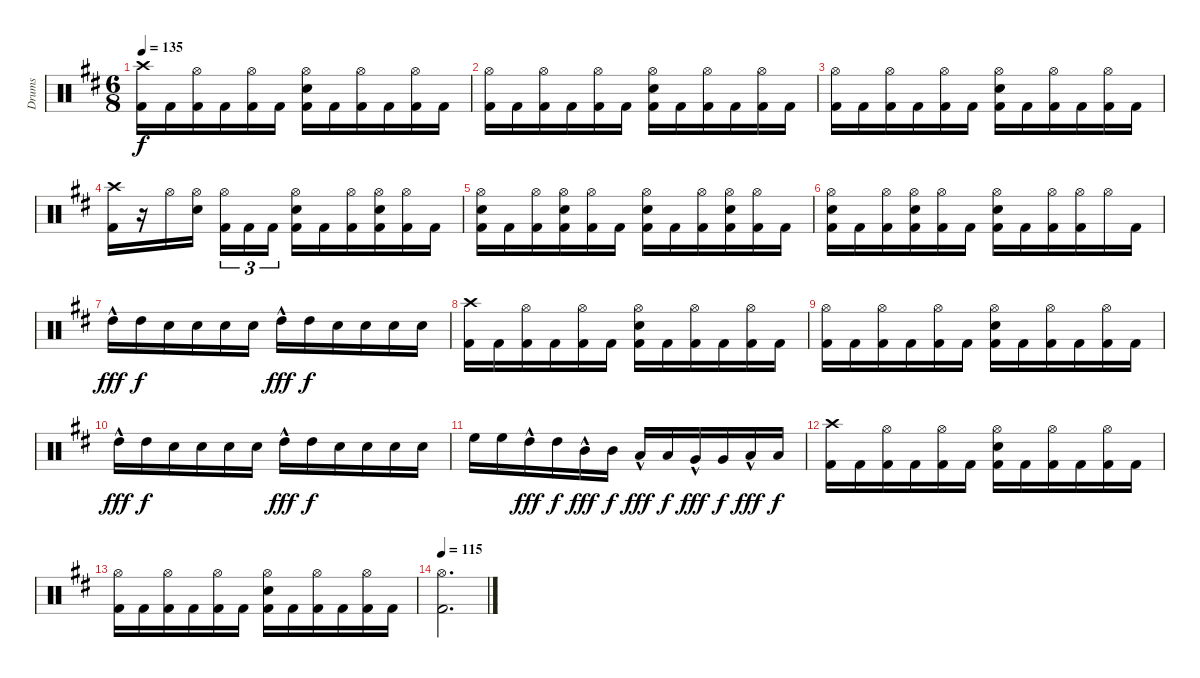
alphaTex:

\track ("Drums" "Drums") {instrument percussion}
\staff {score}
\articulation defaults
\ts (6 8)
\tempo 135
\clef neutral
\ks bminor
("Kick (hit) 2" "Crash high (hit)").16{dy f} "Kick (hit) 2".16 ("Kick (hit) 2" "Hi-Hat (open)").16 "Kick (hit) 2".16 ("Kick (hit) 2" "Hi-Hat (open)").16 "Kick (hit) 2".16 ("Kick (hit) 2" "Electric Snare (hit)" "Hi-Hat (open)").16 "Kick (hit) 2".16 ("Kick (hit) 2" "Hi-Hat (open)").16 "Kick (hit) 2".16 ("Kick (hit) 2" "Hi-Hat (open)").16 "Kick (hit) 2".16 |
("Kick (hit) 2" "Hi-Hat (open)").16 "Kick (hit) 2".16 ("Kick (hit) 2" "Hi-Hat (open)").16 "Kick (hit) 2".16 ("Kick (hit) 2" "Hi-Hat (open)").16 "Kick (hit) 2".16 ("Kick (hit) 2" "Electric Snare (hit)" "Hi-Hat (open)").16 "Kick (hit) 2".16 ("Kick (hit) 2" "Hi-Hat (open)").16 "Kick (hit) 2".16 ("Kick (hit) 2" "Hi-Hat (open)").16 "Kick (hit) 2".16 |
("Kick (hit) 2" "Hi-Hat (open)").16 "Kick (hit) 2".16 ("Kick (hit) 2" "Hi-Hat (open)").16 "Kick (hit) 2".16 ("Kick (hit) 2" "Hi-Hat (open)").16 "Kick (hit) 2".16 ("Kick (hit) 2" "Electric Snare (hit)" "Hi-Hat (open)").16 "Kick (hit) 2".16 ("Kick (hit) 2" "Hi-Hat (open)").16 "Kick (hit) 2".16 ("Kick (hit) 2" "Hi-Hat (open)").16 "Kick (hit) 2".16 |
("Kick (hit) 2" "Crash high (hit)").16 r.16 "Hi-Hat (open)".16 ("Electric Snare (hit)" "Hi-Hat (open)").16{beam splitsecondary} ("Kick (hit) 2" "Hi-Hat (open)").16{tu (3 2)} "Kick (hit) 2".16{tu (3 2)} "Kick (hit) 2".16{tu (3 2)} ("Kick (hit) 2" "Electric Snare (hit)" "Hi-Hat (open)").16 "Kick (hit) 2".16 ("Kick (hit) 2" "Hi-Hat (open)").16 ("Kick (hit) 2" "Electric Snare (hit)" "Hi-Hat (open)").16 ("Kick (hit) 2" "Hi-Hat (open)").16 "Kick (hit) 2".16 |
("Kick (hit) 2" "Electric Snare (hit)" "Hi-Hat (open)").16 "Kick (hit) 2".16 ("Kick (hit) 2" "Hi-Hat (open)").16 ("Kick (hit) 2" "Electric Snare (hit)" "Hi-Hat (open)").16 ("Kick (hit) 2" "Hi-Hat (open)").16 "Kick (hit) 2".16 ("Kick (hit) 2" "Electric Snare (hit)" "Hi-Hat (open)").16 "Kick (hit) 2".16 ("Kick (hit) 2" "Hi-Hat (open)").16 ("Kick (hit) 2" "Electric Snare (hit)" "Hi-Hat (open)").16 ("Kick (hit) 2" "Hi-Hat (open)").16 "Kick (hit) 2".16 |
("Kick (hit) 2" "Electric Snare (hit)" "Hi-Hat (open)").16 "Kick (hit) 2".16 ("Kick (hit) 2" "Hi-Hat (open)").16 ("Kick (hit) 2" "Electric Snare (hit)" "Hi-Hat (open)").16 ("Kick (hit) 2" "Hi-Hat (open)").16 "Kick (hit) 2".16 ("Kick (hit) 2" "Electric Snare (hit)" "Hi-Hat (open)").16 "Kick (hit) 2".16 ("Kick (hit) 2" "Hi-Hat (open)").16 ("Kick (hit) 2" "Hi-Hat (open)").16 "Hi-Hat (open)".16 "Kick (hit) 2".16 |
"High Tom (hit)"{hac}.16{dy fff} "High Tom (hit)".16{dy f} "Electric Snare (hit)".16 "Electric Snare (hit)".16 "Electric Snare (hit)".16 "Electric Snare (hit)".16 "High Tom (hit)"{hac}.16{dy fff} "High Tom (hit)".16{dy f} "Electric Snare (hit)".16 "Electric Snare (hit)".16 "Electric Snare (hit)".16 "Electric Snare (hit)".16 |
("Kick (hit) 2" "Crash high (hit)").16 "Kick (hit) 2".16 ("Kick (hit) 2" "Hi-Hat (open)").16 "Kick (hit) 2".16 ("Kick (hit) 2" "Hi-Hat (open)").16 "Kick (hit) 2".16 ("Kick (hit) 2" "Electric Snare (hit)" "Hi-Hat (open)").16 "Kick (hit) 2".16 ("Kick (hit) 2" "Hi-Hat (open)").16 "Kick (hit) 2".16 ("Kick (hit) 2" "Hi-Hat (open)").16 "Kick (hit) 2".16 |
("Kick (hit) 2" "Hi-Hat (open)").16 "Kick (hit) 2".16 ("Kick (hit) 2" "Hi-Hat (open)").16 "Kick (hit) 2".16 ("Kick (hit) 2" "Hi-Hat (open)").16 "Kick (hit) 2".16 ("Kick (hit) 2" "Electric Snare (hit)" "Hi-Hat (open)").16 "Kick (hit) 2".16 ("Kick (hit) 2" "Hi-Hat (open)").16 "Kick (hit) 2".16 ("Kick (hit) 2" "Hi-Hat (open)").16 "Kick (hit) 2".16 |
"High Tom (hit)"{hac}.16{dy fff} "High Tom (hit)".16{dy f} "Electric Snare (hit)".16 "Electric Snare (hit)".16 "Electric Snare (hit)".16 "Electric Snare (hit)".16 "High Tom (hit)"{hac}.16{dy fff} "High Tom (hit)".16{dy f} "Electric Snare (hit)".16 "Electric Snare (hit)".16 "Electric Snare (hit)".16 "Electric Snare (hit)".16 |
"High Floor Tom (hit)".16 "High Floor Tom (hit)".16 "High Tom (hit)"{hac}.16{dy fff} "High Tom (hit)".16{dy f} "Mid Tom (hit)"{hac}.16{dy fff} "Mid Tom (hit)".16{dy f} "Low Tom (hit)"{hac}.16{dy fff} "Low Tom (hit)".16{dy f} "Very Low Tom (hit)"{hac}.16{dy fff} "Very Low Tom (hit)".16{dy f} "Low Floor Tom (hit)"{hac}.16{dy fff} "Low Floor Tom (hit)".16{dy f} |
("Kick (hit) 2" "Crash high (hit)").16 "Kick (hit) 2".16 ("Kick (hit) 2" "Hi-Hat (open)").16 "Kick (hit) 2".16 ("Kick (hit) 2" "Hi-Hat (open)").16 "Kick (hit) 2".16 ("Kick (hit) 2" "Electric Snare (hit)" "Hi-Hat (open)").16 "Kick (hit) 2".16 ("Kick (hit) 2" "Hi-Hat (open)").16 "Kick (hit) 2".16 ("Kick (hit) 2" "Hi-Hat (open)").16 "Kick (hit) 2".16 |
("Kick (hit) 2" "Hi-Hat (open)").16 "Kick (hit) 2".16 ("Kick (hit) 2" "Hi-Hat (open)").16 "Kick (hit) 2".16 ("Kick (hit) 2" "Hi-Hat (open)").16 "Kick (hit) 2".16 ("Kick (hit) 2" "Electric Snare (hit)" "Hi-Hat (open)").16 "Kick (hit) 2".16 ("Kick (hit) 2" "Hi-Hat (open)").16 "Kick (hit) 2".16 ("Kick (hit) 2" "Hi-Hat (open)").16 "Kick (hit) 2".16 |
\tempo 115
("Kick (hit) 2" "Hi-Hat (open)").2{d}
